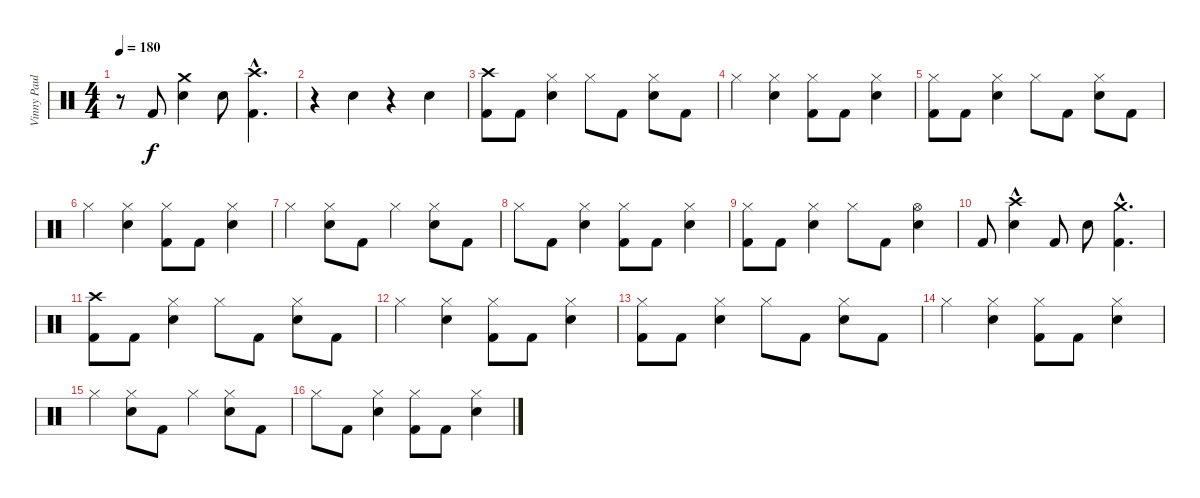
\track ("Vinny Paul" "Vinny Paul") {instrument percussion}
\staff {score}
\articulation defaults
\ts (4 4)
\tempo 180
\clef neutral
\ks c
r.8{dy f} "Kick (hit) 2".8 ("Crash medium (hit)" "Electric Snare (hit)").4 "Electric Snare (hit)".8 ("Crash high (hit)"{hac} "Kick (hit) 2"{hac}).4{d} |
r.4 "Electric Snare (hit)".4 r.4 "Electric Snare (hit)".4 |
("Crash high (hit)" "Kick (hit) 2").8 "Kick (hit) 2".8 ("Hi-Hat (closed)" "Electric Snare (hit)").4 "Hi-Hat (closed)".8 "Kick (hit) 2".8 ("Hi-Hat (closed)" "Electric Snare (hit)").8 "Kick (hit) 2".8 |
"Hi-Hat (closed)".4 ("Hi-Hat (closed)" "Electric Snare (hit)").4 ("Hi-Hat (closed)" "Kick (hit) 2").8 "Kick (hit) 2".8 ("Hi-Hat (closed)" "Electric Snare (hit)").4 |
("Hi-Hat (closed)" "Kick (hit) 2").8 "Kick (hit) 2".8 ("Hi-Hat (closed)" "Electric Snare (hit)").4 "Hi-Hat (closed)".8 "Kick (hit) 2".8 ("Hi-Hat (closed)" "Electric Snare (hit)").8 "Kick (hit) 2".8 |
"Hi-Hat (closed)".4 ("Hi-Hat (closed)" "Electric Snare (hit)").4 ("Hi-Hat (closed)" "Kick (hit) 2").8 "Kick (hit) 2".8 ("Hi-Hat (closed)" "Electric Snare (hit)").4 |
"Hi-Hat (closed)".4 ("Hi-Hat (closed)" "Electric Snare (hit)").8 "Kick (hit) 2".8 "Hi-Hat (closed)".4 ("Hi-Hat (closed)" "Electric Snare (hit)").8 "Kick (hit) 2".8 |
"Hi-Hat (closed)".8 "Kick (hit) 2".8 ("Hi-Hat (closed)" "Electric Snare (hit)").4 ("Hi-Hat (closed)" "Kick (hit) 2").8 "Kick (hit) 2".8 ("Hi-Hat (closed)" "Electric Snare (hit)").4 |
("Hi-Hat (closed)" "Kick (hit) 2").8 "Kick (hit) 2".8 ("Hi-Hat (closed)" "Electric Snare (hit)").4 "Hi-Hat (closed)".8 "Kick (hit) 2".8 ("Hi-Hat (open)" "Electric Snare (hit)").4 |
"Kick (hit) 2".8 ("Crash high (hit)"{hac} "Electric Snare (hit)").4 "Kick (hit) 2".8 "Electric Snare (hit)".8 ("Crash medium (hit)"{hac} "Kick (hit) 2"{hac}).4{d} |
("Crash high (hit)" "Kick (hit) 2").8 "Kick (hit) 2".8 ("Hi-Hat (closed)" "Electric Snare (hit)").4 "Hi-Hat (closed)".8 "Kick (hit) 2".8 ("Hi-Hat (closed)" "Electric Snare (hit)").8 "Kick (hit) 2".8 |
"Hi-Hat (closed)".4 ("Hi-Hat (closed)" "Electric Snare (hit)").4 ("Hi-Hat (closed)" "Kick (hit) 2").8 "Kick (hit) 2".8 ("Hi-Hat (closed)" "Electric Snare (hit)").4 |
("Hi-Hat (closed)" "Kick (hit) 2").8 "Kick (hit) 2".8 ("Hi-Hat (closed)" "Electric Snare (hit)").4 "Hi-Hat (closed)".8 "Kick (hit) 2".8 ("Hi-Hat (closed)" "Electric Snare (hit)").8 "Kick (hit) 2".8 |
"Hi-Hat (closed)".4 ("Hi-Hat (closed)" "Electric Snare (hit)").4 ("Hi-Hat (closed)" "Kick (hit) 2").8 "Kick (hit) 2".8 ("Hi-Hat (closed)" "Electric Snare (hit)").4 |
"Hi-Hat (closed)".4 ("Hi-Hat (closed)" "Electric Snare (hit)").8 "Kick (hit) 2".8 "Hi-Hat (closed)".4 ("Hi-Hat (closed)" "Electric Snare (hit)").8 "Kick (hit) 2".8 |
"Hi-Hat (closed)".8 "Kick (hit) 2".8 ("Hi-Hat (closed)" "Electric Snare (hit)").4 ("Hi-Hat (closed)" "Kick (hit) 2").8 "Kick (hit) 2".8 ("Hi-Hat (closed)" "Electric Snare (hit)").4
